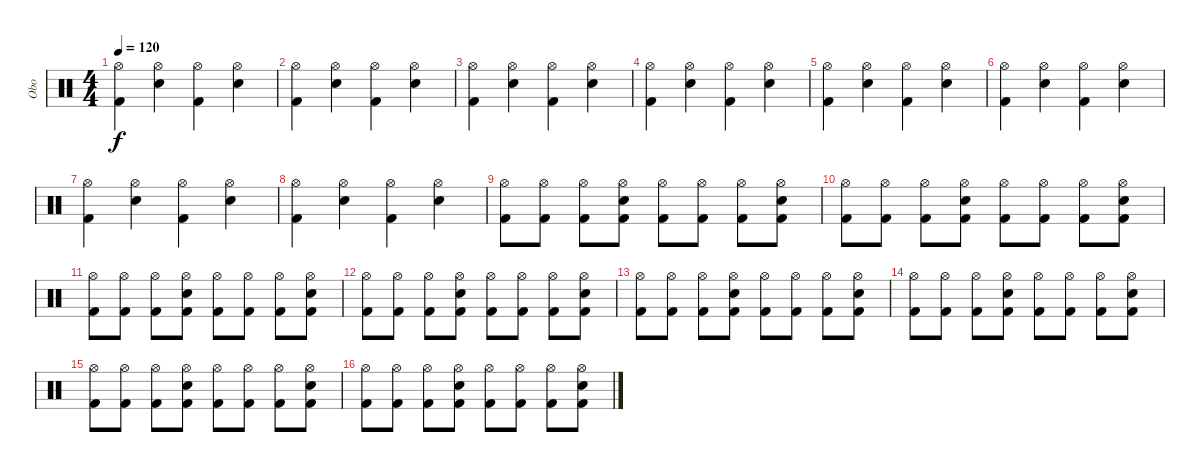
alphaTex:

\track ("Obo" "Obo") {instrument percussion}
\staff {score}
\articulation defaults
\ts (4 4)
\tempo 120
\clef neutral
\ks c
("Kick (hit) 2" "Hi-Hat (open)").4{dy f} ("Snare (hit) 2" "Hi-Hat (open)").4 ("Kick (hit) 2" "Hi-Hat (open)").4 ("Snare (hit) 2" "Hi-Hat (open)").4 |
("Kick (hit) 2" "Hi-Hat (open)").4 ("Snare (hit) 2" "Hi-Hat (open)").4 ("Kick (hit) 2" "Hi-Hat (open)").4 ("Snare (hit) 2" "Hi-Hat (open)").4 |
("Kick (hit) 2" "Hi-Hat (open)").4 ("Snare (hit) 2" "Hi-Hat (open)").4 ("Kick (hit) 2" "Hi-Hat (open)").4 ("Snare (hit) 2" "Hi-Hat (open)").4 |
("Kick (hit) 2" "Hi-Hat (open)").4 ("Snare (hit) 2" "Hi-Hat (open)").4 ("Kick (hit) 2" "Hi-Hat (open)").4 ("Snare (hit) 2" "Hi-Hat (open)").4 |
("Kick (hit) 2" "Hi-Hat (open)").4 ("Snare (hit) 2" "Hi-Hat (open)").4 ("Kick (hit) 2" "Hi-Hat (open)").4 ("Snare (hit) 2" "Hi-Hat (open)").4 |
("Kick (hit) 2" "Hi-Hat (open)").4 ("Snare (hit) 2" "Hi-Hat (open)").4 ("Kick (hit) 2" "Hi-Hat (open)").4 ("Snare (hit) 2" "Hi-Hat (open)").4 |
("Kick (hit) 2" "Hi-Hat (open)").4 ("Snare (hit) 2" "Hi-Hat (open)").4 ("Kick (hit) 2" "Hi-Hat (open)").4 ("Snare (hit) 2" "Hi-Hat (open)").4 |
("Kick (hit) 2" "Hi-Hat (open)").4 ("Snare (hit) 2" "Hi-Hat (open)").4 ("Kick (hit) 2" "Hi-Hat (open)").4 ("Snare (hit) 2" "Hi-Hat (open)").4 |
("Kick (hit) 2" "Hi-Hat (open)").8 ("Kick (hit) 2" "Hi-Hat (open)").8 ("Kick (hit) 2" "Hi-Hat (open)").8 ("Snare (hit) 2" "Kick (hit) 2" "Hi-Hat (open)").8 ("Kick (hit) 2" "Hi-Hat (open)").8 ("Kick (hit) 2" "Hi-Hat (open)").8 ("Kick (hit) 2" "Hi-Hat (open)").8 ("Snare (hit) 2" "Kick (hit) 2" "Hi-Hat (open)").8 |
("Kick (hit) 2" "Hi-Hat (open)").8 ("Kick (hit) 2" "Hi-Hat (open)").8 ("Kick (hit) 2" "Hi-Hat (open)").8 ("Snare (hit) 2" "Kick (hit) 2" "Hi-Hat (open)").8 ("Kick (hit) 2" "Hi-Hat (open)").8 ("Kick (hit) 2" "Hi-Hat (open)").8 ("Kick (hit) 2" "Hi-Hat (open)").8 ("Snare (hit) 2" "Kick (hit) 2" "Hi-Hat (open)").8 |
("Kick (hit) 2" "Hi-Hat (open)").8 ("Kick (hit) 2" "Hi-Hat (open)").8 ("Kick (hit) 2" "Hi-Hat (open)").8 ("Snare (hit) 2" "Kick (hit) 2" "Hi-Hat (open)").8 ("Kick (hit) 2" "Hi-Hat (open)").8 ("Kick (hit) 2" "Hi-Hat (open)").8 ("Kick (hit) 2" "Hi-Hat (open)").8 ("Snare (hit) 2" "Kick (hit) 2" "Hi-Hat (open)").8 |
("Kick (hit) 2" "Hi-Hat (open)").8 ("Kick (hit) 2" "Hi-Hat (open)").8 ("Kick (hit) 2" "Hi-Hat (open)").8 ("Snare (hit) 2" "Kick (hit) 2" "Hi-Hat (open)").8 ("Kick (hit) 2" "Hi-Hat (open)").8 ("Kick (hit) 2" "Hi-Hat (open)").8 ("Kick (hit) 2" "Hi-Hat (open)").8 ("Snare (hit) 2" "Kick (hit) 2" "Hi-Hat (open)").8 |
("Kick (hit) 2" "Hi-Hat (open)").8 ("Kick (hit) 2" "Hi-Hat (open)").8 ("Kick (hit) 2" "Hi-Hat (open)").8 ("Snare (hit) 2" "Kick (hit) 2" "Hi-Hat (open)").8 ("Kick (hit) 2" "Hi-Hat (open)").8 ("Kick (hit) 2" "Hi-Hat (open)").8 ("Kick (hit) 2" "Hi-Hat (open)").8 ("Snare (hit) 2" "Kick (hit) 2" "Hi-Hat (open)").8 |
("Kick (hit) 2" "Hi-Hat (open)").8 ("Kick (hit) 2" "Hi-Hat (open)").8 ("Kick (hit) 2" "Hi-Hat (open)").8 ("Snare (hit) 2" "Kick (hit) 2" "Hi-Hat (open)").8 ("Kick (hit) 2" "Hi-Hat (open)").8 ("Kick (hit) 2" "Hi-Hat (open)").8 ("Kick (hit) 2" "Hi-Hat (open)").8 ("Snare (hit) 2" "Kick (hit) 2" "Hi-Hat (open)").8 |
("Kick (hit) 2" "Hi-Hat (open)").8 ("Kick (hit) 2" "Hi-Hat (open)").8 ("Kick (hit) 2" "Hi-Hat (open)").8 ("Snare (hit) 2" "Kick (hit) 2" "Hi-Hat (open)").8 ("Kick (hit) 2" "Hi-Hat (open)").8 ("Kick (hit) 2" "Hi-Hat (open)").8 ("Kick (hit) 2" "Hi-Hat (open)").8 ("Snare (hit) 2" "Kick (hit) 2" "Hi-Hat (open)").8 |
("Kick (hit) 2" "Hi-Hat (open)").8 ("Kick (hit) 2" "Hi-Hat (open)").8 ("Kick (hit) 2" "Hi-Hat (open)").8 ("Snare (hit) 2" "Kick (hit) 2" "Hi-Hat (open)").8 ("Kick (hit) 2" "Hi-Hat (open)").8 ("Kick (hit) 2" "Hi-Hat (open)").8 ("Kick (hit) 2" "Hi-Hat (open)").8 ("Snare (hit) 2" "Kick (hit) 2" "Hi-Hat (open)").8
